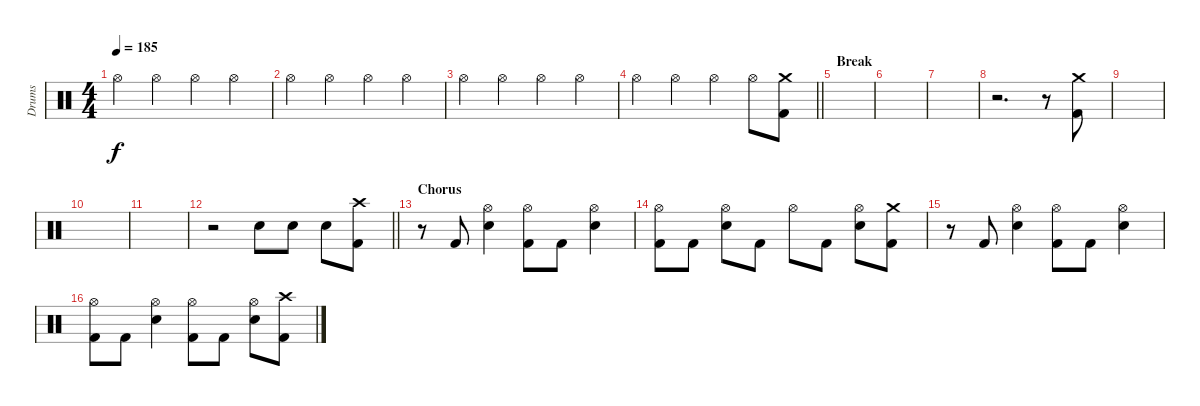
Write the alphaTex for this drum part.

\track ("Drums" "Drums") {instrument percussion}
\staff {score}
\articulation defaults
\ts (4 4)
\tempo 185
\clef neutral
\ks c "Hi-Hat (open)".4{dy f} "Hi-Hat (open)".4 "Hi-Hat (open)".4 "Hi-Hat (open)".4
|
"Hi-Hat (open)".4 "Hi-Hat (open)".4 "Hi-Hat (open)".4 "Hi-Hat (open)".4 |
"Hi-Hat (open)".4 "Hi-Hat (open)".4 "Hi-Hat (open)".4 "Hi-Hat (open)".4 |
\barLineRight lightlight "Hi-Hat (open)".4 "Hi-Hat (open)".4 "Hi-Hat (open)".4 "Hi-Hat (open)".8
("Crash medium (hit)" "Kick (hit) 2").8 |
\section ("" "Break")
|
|
|
r.2{d} r.8 ("Crash medium (hit)" "Kick (hit) 2").8 |
|
|
|
\barLineRight lightlight
r.2 "Snare (hit) 2".8 "Snare (hit) 2".8 "Snare (hit) 2".8 ("Crash high (hit)" "Kick (hit) 2").8 |
\section ("" "Chorus")
r.8 "Kick (hit) 2".8 ("Hi-Hat (open)" "Snare (hit) 2").4 ("Hi-Hat (open)" "Kick (hit) 2").8 "Kick (hit) 2".8 ("Hi-Hat (open)" "Snare (hit) 2").4 |
("Hi-Hat (open)" "Kick (hit) 2").8 "Kick (hit) 2".8 ("Hi-Hat (open)" "Snare (hit) 2").8 "Kick (hit) 2".8 "Hi-Hat (open)".8 "Kick (hit) 2".8 ("Hi-Hat (open)" "Snare (hit) 2").8 ("Crash medium (hit)" "Kick (hit) 2").8 |
r.8 "Kick (hit) 2".8 ("Hi-Hat (open)" "Snare (hit) 2").4 ("Hi-Hat (open)" "Kick (hit) 2").8 "Kick (hit) 2".8 ("Hi-Hat (open)" "Snare (hit) 2").4 |
("Hi-Hat (open)" "Kick (hit) 2").8 "Kick (hit) 2".8 ("Hi-Hat (open)" "Snare (hit) 2").4 ("Hi-Hat (open)" "Kick (hit) 2").8 "Kick (hit) 2".8 ("Hi-Hat (open)" "Snare (hit) 2").8 ("Crash high (hit)" "Kick (hit) 2").8
